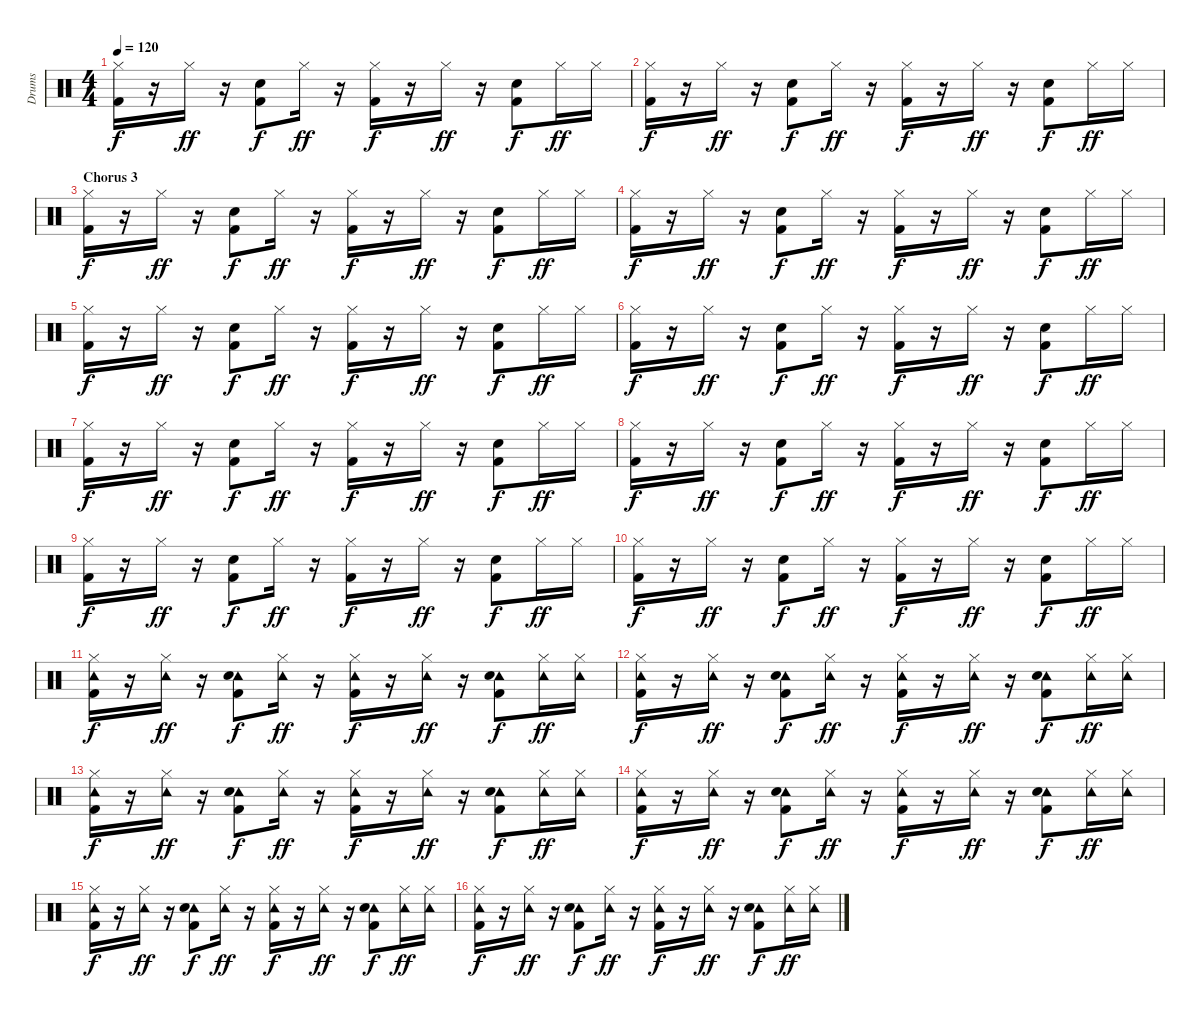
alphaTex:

\track ("Drums" "Drums") {instrument percussion}
\staff {score}
\articulation defaults
\ts (4 4)
\tempo 120
\clef neutral
\ks c
("Hi-Hat (closed)" "Kick (hit) 2").16{dy f} r.16 "Hi-Hat (closed)".16{dy ff} r.16 ("Electric Snare (hit)" "Kick (hit) 2").8{dy f} "Hi-Hat (closed)".16{dy ff} r.16 ("Hi-Hat (closed)" "Kick (hit) 2").16{dy f} r.16 "Hi-Hat (closed)".16{dy ff} r.16 ("Electric Snare (hit)" "Kick (hit) 2").8{dy f} "Hi-Hat (closed)".16{dy ff} "Hi-Hat (closed)".16 |
("Hi-Hat (closed)" "Kick (hit) 2").16{dy f} r.16 "Hi-Hat (closed)".16{dy ff} r.16 ("Electric Snare (hit)" "Kick (hit) 2").8{dy f} "Hi-Hat (closed)".16{dy ff} r.16 ("Hi-Hat (closed)" "Kick (hit) 2").16{dy f} r.16 "Hi-Hat (closed)".16{dy ff} r.16 ("Electric Snare (hit)" "Kick (hit) 2").8{dy f} "Hi-Hat (closed)".16{dy ff} "Hi-Hat (closed)".16 |
\section ("" "Chorus 3")
("Hi-Hat (closed)" "Kick (hit) 2").16{dy f} r.16 "Hi-Hat (closed)".16{dy ff} r.16 ("Electric Snare (hit)" "Kick (hit) 2").8{dy f} "Hi-Hat (closed)".16{dy ff} r.16 ("Hi-Hat (closed)" "Kick (hit) 2").16{dy f} r.16 "Hi-Hat (closed)".16{dy ff} r.16 ("Electric Snare (hit)" "Kick (hit) 2").8{dy f} "Hi-Hat (closed)".16{dy ff} "Hi-Hat (closed)".16 |
("Hi-Hat (closed)" "Kick (hit) 2").16{dy f} r.16 "Hi-Hat (closed)".16{dy ff} r.16 ("Electric Snare (hit)" "Kick (hit) 2").8{dy f} "Hi-Hat (closed)".16{dy ff} r.16 ("Hi-Hat (closed)" "Kick (hit) 2").16{dy f} r.16 "Hi-Hat (closed)".16{dy ff} r.16 ("Electric Snare (hit)" "Kick (hit) 2").8{dy f} "Hi-Hat (closed)".16{dy ff} "Hi-Hat (closed)".16 |
("Hi-Hat (closed)" "Kick (hit) 2").16{dy f} r.16 "Hi-Hat (closed)".16{dy ff} r.16 ("Electric Snare (hit)" "Kick (hit) 2").8{dy f} "Hi-Hat (closed)".16{dy ff} r.16 ("Hi-Hat (closed)" "Kick (hit) 2").16{dy f} r.16 "Hi-Hat (closed)".16{dy ff} r.16 ("Electric Snare (hit)" "Kick (hit) 2").8{dy f} "Hi-Hat (closed)".16{dy ff} "Hi-Hat (closed)".16 |
("Hi-Hat (closed)" "Kick (hit) 2").16{dy f} r.16 "Hi-Hat (closed)".16{dy ff} r.16 ("Electric Snare (hit)" "Kick (hit) 2").8{dy f} "Hi-Hat (closed)".16{dy ff} r.16 ("Hi-Hat (closed)" "Kick (hit) 2").16{dy f} r.16 "Hi-Hat (closed)".16{dy ff} r.16 ("Electric Snare (hit)" "Kick (hit) 2").8{dy f} "Hi-Hat (closed)".16{dy ff} "Hi-Hat (closed)".16 |
("Hi-Hat (closed)" "Kick (hit) 2").16{dy f} r.16 "Hi-Hat (closed)".16{dy ff} r.16 ("Electric Snare (hit)" "Kick (hit) 2").8{dy f} "Hi-Hat (closed)".16{dy ff} r.16 ("Hi-Hat (closed)" "Kick (hit) 2").16{dy f} r.16 "Hi-Hat (closed)".16{dy ff} r.16 ("Electric Snare (hit)" "Kick (hit) 2").8{dy f} "Hi-Hat (closed)".16{dy ff} "Hi-Hat (closed)".16 |
("Hi-Hat (closed)" "Kick (hit) 2").16{dy f} r.16 "Hi-Hat (closed)".16{dy ff} r.16 ("Electric Snare (hit)" "Kick (hit) 2").8{dy f} "Hi-Hat (closed)".16{dy ff} r.16 ("Hi-Hat (closed)" "Kick (hit) 2").16{dy f} r.16 "Hi-Hat (closed)".16{dy ff} r.16 ("Electric Snare (hit)" "Kick (hit) 2").8{dy f} "Hi-Hat (closed)".16{dy ff} "Hi-Hat (closed)".16 |
("Hi-Hat (closed)" "Kick (hit) 2").16{dy f} r.16 "Hi-Hat (closed)".16{dy ff} r.16 ("Electric Snare (hit)" "Kick (hit) 2").8{dy f} "Hi-Hat (closed)".16{dy ff} r.16 ("Hi-Hat (closed)" "Kick (hit) 2").16{dy f} r.16 "Hi-Hat (closed)".16{dy ff} r.16 ("Electric Snare (hit)" "Kick (hit) 2").8{dy f} "Hi-Hat (closed)".16{dy ff} "Hi-Hat (closed)".16 |
("Hi-Hat (closed)" "Kick (hit) 2").16{dy f} r.16 "Hi-Hat (closed)".16{dy ff} r.16 ("Electric Snare (hit)" "Kick (hit) 2").8{dy f} "Hi-Hat (closed)".16{dy ff} r.16 ("Hi-Hat (closed)" "Kick (hit) 2").16{dy f} r.16 "Hi-Hat (closed)".16{dy ff} r.16 ("Electric Snare (hit)" "Kick (hit) 2").8{dy f} "Hi-Hat (closed)".16{dy ff} "Hi-Hat (closed)".16 |
("Hi-Hat (closed)" "Tambourine (hit)" "Kick (hit) 2").16{dy f} r.16 ("Hi-Hat (closed)" "Tambourine (hit)").16{dy ff} r.16 ("Tambourine (hit)" "Electric Snare (hit)" "Kick (hit) 2").8{dy f} ("Hi-Hat (closed)" "Tambourine (hit)").16{dy ff} r.16 ("Hi-Hat (closed)" "Tambourine (hit)" "Kick (hit) 2").16{dy f} r.16 ("Hi-Hat (closed)" "Tambourine (hit)").16{dy ff} r.16 ("Tambourine (hit)" "Electric Snare (hit)" "Kick (hit) 2").8{dy f} ("Hi-Hat (closed)" "Tambourine (hit)").16{dy ff} ("Hi-Hat (closed)" "Tambourine (hit)").16 |
("Hi-Hat (closed)" "Tambourine (hit)" "Kick (hit) 2").16{dy f} r.16 ("Hi-Hat (closed)" "Tambourine (hit)").16{dy ff} r.16 ("Tambourine (hit)" "Electric Snare (hit)" "Kick (hit) 2").8{dy f} ("Hi-Hat (closed)" "Tambourine (hit)").16{dy ff} r.16 ("Hi-Hat (closed)" "Tambourine (hit)" "Kick (hit) 2").16{dy f} r.16 ("Hi-Hat (closed)" "Tambourine (hit)").16{dy ff} r.16 ("Tambourine (hit)" "Electric Snare (hit)" "Kick (hit) 2").8{dy f} ("Hi-Hat (closed)" "Tambourine (hit)").16{dy ff} ("Hi-Hat (closed)" "Tambourine (hit)").16 |
("Hi-Hat (closed)" "Tambourine (hit)" "Kick (hit) 2").16{dy f} r.16 ("Hi-Hat (closed)" "Tambourine (hit)").16{dy ff} r.16 ("Tambourine (hit)" "Electric Snare (hit)" "Kick (hit) 2").8{dy f} ("Hi-Hat (closed)" "Tambourine (hit)").16{dy ff} r.16 ("Hi-Hat (closed)" "Tambourine (hit)" "Kick (hit) 2").16{dy f} r.16 ("Hi-Hat (closed)" "Tambourine (hit)").16{dy ff} r.16 ("Tambourine (hit)" "Electric Snare (hit)" "Kick (hit) 2").8{dy f} ("Hi-Hat (closed)" "Tambourine (hit)").16{dy ff} ("Hi-Hat (closed)" "Tambourine (hit)").16 |
("Hi-Hat (closed)" "Tambourine (hit)" "Kick (hit) 2").16{dy f} r.16 ("Hi-Hat (closed)" "Tambourine (hit)").16{dy ff} r.16 ("Tambourine (hit)" "Electric Snare (hit)" "Kick (hit) 2").8{dy f} ("Hi-Hat (closed)" "Tambourine (hit)").16{dy ff} r.16 ("Hi-Hat (closed)" "Tambourine (hit)" "Kick (hit) 2").16{dy f} r.16 ("Hi-Hat (closed)" "Tambourine (hit)").16{dy ff} r.16 ("Tambourine (hit)" "Electric Snare (hit)" "Kick (hit) 2").8{dy f} ("Hi-Hat (closed)" "Tambourine (hit)").16{dy ff} ("Hi-Hat (closed)" "Tambourine (hit)").16 |
("Hi-Hat (closed)" "Tambourine (hit)" "Kick (hit) 2").16{dy f} r.16 ("Hi-Hat (closed)" "Tambourine (hit)").16{dy ff} r.16 ("Tambourine (hit)" "Electric Snare (hit)" "Kick (hit) 2").8{dy f} ("Hi-Hat (closed)" "Tambourine (hit)").16{dy ff} r.16 ("Hi-Hat (closed)" "Tambourine (hit)" "Kick (hit) 2").16{dy f} r.16 ("Hi-Hat (closed)" "Tambourine (hit)").16{dy ff} r.16 ("Tambourine (hit)" "Electric Snare (hit)" "Kick (hit) 2").8{dy f} ("Hi-Hat (closed)" "Tambourine (hit)").16{dy ff} ("Hi-Hat (closed)" "Tambourine (hit)").16 |
("Hi-Hat (closed)" "Tambourine (hit)" "Kick (hit) 2").16{dy f} r.16 ("Hi-Hat (closed)" "Tambourine (hit)").16{dy ff} r.16 ("Tambourine (hit)" "Electric Snare (hit)" "Kick (hit) 2").8{dy f} ("Hi-Hat (closed)" "Tambourine (hit)").16{dy ff} r.16 ("Hi-Hat (closed)" "Tambourine (hit)" "Kick (hit) 2").16{dy f} r.16 ("Hi-Hat (closed)" "Tambourine (hit)").16{dy ff} r.16 ("Tambourine (hit)" "Electric Snare (hit)" "Kick (hit) 2").8{dy f} ("Hi-Hat (closed)" "Tambourine (hit)").16{dy ff} ("Hi-Hat (closed)" "Tambourine (hit)").16
